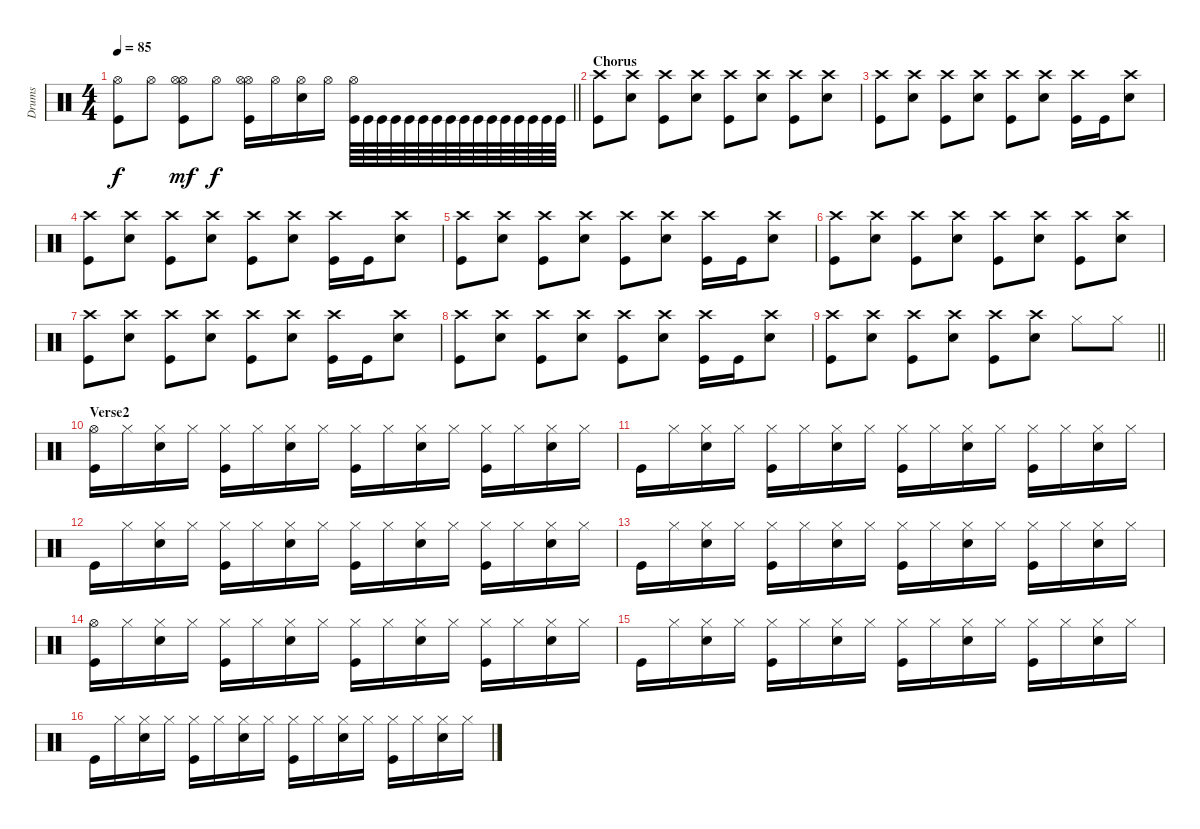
\track ("Drums" "Drums") {instrument percussion}
\staff {score}
\articulation defaults
\ts (4 4)
\tempo 85
\clef neutral
\barLineRight lightlight
\ks c
("Hi-Hat (open)" "Kick (hit)").8{dy f} "Hi-Hat (open)".8 ("Hi-Hat (open)" "Kick (hit)" "Hi-Hat (open)").8{dy mf} "Hi-Hat (open)".8{dy f} ("Hi-Hat (open)" "Kick (hit)" "Hi-Hat (open)").16 "Hi-Hat (open)".16 ("Hi-Hat (open)" "Electric Snare (hit)").16 "Hi-Hat (open)".16 ("Hi-Hat (open)" "Kick (hit)").64 "Kick (hit)".64 "Kick (hit)".64 "Kick (hit)".64 "Kick (hit)".64 "Kick (hit)".64 "Kick (hit)".64 "Kick (hit)".64 "Kick (hit)".64 "Kick (hit)".64 "Kick (hit)".64 "Kick (hit)".64 "Kick (hit)".64 "Kick (hit)".64 "Kick (hit)".64 "Kick (hit)".64 |
\section ("" "Chorus")
("Kick (hit)" "Crash high (hit)").8 ("Electric Snare (hit)" "Crash high (hit)").8 ("Kick (hit)" "Crash high (hit)").8 ("Electric Snare (hit)" "Crash high (hit)").8 ("Kick (hit)" "Crash high (hit)").8 ("Electric Snare (hit)" "Crash high (hit)").8 ("Kick (hit)" "Crash high (hit)").8 ("Electric Snare (hit)" "Crash high (hit)").8 |
("Kick (hit)" "Crash high (hit)").8 ("Electric Snare (hit)" "Crash high (hit)").8 ("Kick (hit)" "Crash high (hit)").8 ("Electric Snare (hit)" "Crash high (hit)").8 ("Kick (hit)" "Crash high (hit)").8 ("Electric Snare (hit)" "Crash high (hit)").8 ("Kick (hit)" "Crash high (hit)").16 "Kick (hit)".16 ("Electric Snare (hit)" "Crash high (hit)").8 |
("Kick (hit)" "Crash high (hit)").8 ("Electric Snare (hit)" "Crash high (hit)").8 ("Kick (hit)" "Crash high (hit)").8 ("Electric Snare (hit)" "Crash high (hit)").8 ("Kick (hit)" "Crash high (hit)").8 ("Electric Snare (hit)" "Crash high (hit)").8 ("Kick (hit)" "Crash high (hit)").16 "Kick (hit)".16 ("Electric Snare (hit)" "Crash high (hit)").8 |
("Kick (hit)" "Crash high (hit)").8 ("Electric Snare (hit)" "Crash high (hit)").8 ("Kick (hit)" "Crash high (hit)").8 ("Electric Snare (hit)" "Crash high (hit)").8 ("Kick (hit)" "Crash high (hit)").8 ("Electric Snare (hit)" "Crash high (hit)").8 ("Kick (hit)" "Crash high (hit)").16 "Kick (hit)".16 ("Electric Snare (hit)" "Crash high (hit)").8 |
("Kick (hit)" "Crash high (hit)").8 ("Electric Snare (hit)" "Crash high (hit)").8 ("Kick (hit)" "Crash high (hit)").8 ("Electric Snare (hit)" "Crash high (hit)").8 ("Kick (hit)" "Crash high (hit)").8 ("Electric Snare (hit)" "Crash high (hit)").8 ("Kick (hit)" "Crash high (hit)").8 ("Electric Snare (hit)" "Crash high (hit)").8 |
("Kick (hit)" "Crash high (hit)").8 ("Electric Snare (hit)" "Crash high (hit)").8 ("Kick (hit)" "Crash high (hit)").8 ("Electric Snare (hit)" "Crash high (hit)").8 ("Kick (hit)" "Crash high (hit)").8 ("Electric Snare (hit)" "Crash high (hit)").8 ("Kick (hit)" "Crash high (hit)").16 "Kick (hit)".16 ("Electric Snare (hit)" "Crash high (hit)").8 |
("Kick (hit)" "Crash high (hit)").8 ("Electric Snare (hit)" "Crash high (hit)").8 ("Kick (hit)" "Crash high (hit)").8 ("Electric Snare (hit)" "Crash high (hit)").8 ("Kick (hit)" "Crash high (hit)").8 ("Electric Snare (hit)" "Crash high (hit)").8 ("Kick (hit)" "Crash high (hit)").16 "Kick (hit)".16 ("Electric Snare (hit)" "Crash high (hit)").8 |
\barLineRight lightlight
("Kick (hit)" "Crash high (hit)").8 ("Electric Snare (hit)" "Crash high (hit)").8 ("Kick (hit)" "Crash high (hit)").8 ("Electric Snare (hit)" "Crash high (hit)").8 ("Kick (hit)" "Crash high (hit)").8 ("Electric Snare (hit)" "Crash high (hit)").8 "Hi-Hat (closed)".8 "Hi-Hat (closed)".8 |
\section ("" "Verse2")
("Kick (hit)" "Hi-Hat (open)").16 "Hi-Hat (closed)".16 ("Hi-Hat (closed)" "Electric Snare (hit)").16 "Hi-Hat (closed)".16 ("Hi-Hat (closed)" "Kick (hit)").16 "Hi-Hat (closed)".16 ("Hi-Hat (closed)" "Electric Snare (hit)").16 "Hi-Hat (closed)".16 ("Hi-Hat (closed)" "Kick (hit)").16 "Hi-Hat (closed)".16 ("Hi-Hat (closed)" "Electric Snare (hit)").16 "Hi-Hat (closed)".16 ("Hi-Hat (closed)" "Kick (hit)").16 "Hi-Hat (closed)".16 ("Hi-Hat (closed)" "Electric Snare (hit)").16 "Hi-Hat (closed)".16 |
"Kick (hit)".16 "Hi-Hat (closed)".16 ("Hi-Hat (closed)" "Electric Snare (hit)").16 "Hi-Hat (closed)".16 ("Hi-Hat (closed)" "Kick (hit)").16 "Hi-Hat (closed)".16 ("Hi-Hat (closed)" "Electric Snare (hit)").16 "Hi-Hat (closed)".16 ("Hi-Hat (closed)" "Kick (hit)").16 "Hi-Hat (closed)".16 ("Hi-Hat (closed)" "Electric Snare (hit)").16 "Hi-Hat (closed)".16 ("Hi-Hat (closed)" "Kick (hit)").16 "Hi-Hat (closed)".16 ("Hi-Hat (closed)" "Electric Snare (hit)").16 "Hi-Hat (closed)".16 |
"Kick (hit)".16 "Hi-Hat (closed)".16 ("Hi-Hat (closed)" "Electric Snare (hit)").16 "Hi-Hat (closed)".16 ("Hi-Hat (closed)" "Kick (hit)").16 "Hi-Hat (closed)".16 ("Hi-Hat (closed)" "Electric Snare (hit)").16 "Hi-Hat (closed)".16 ("Hi-Hat (closed)" "Kick (hit)").16 "Hi-Hat (closed)".16 ("Hi-Hat (closed)" "Electric Snare (hit)").16 "Hi-Hat (closed)".16 ("Hi-Hat (closed)" "Kick (hit)").16 "Hi-Hat (closed)".16 ("Hi-Hat (closed)" "Electric Snare (hit)").16 "Hi-Hat (closed)".16 |
"Kick (hit)".16 "Hi-Hat (closed)".16 ("Hi-Hat (closed)" "Electric Snare (hit)").16 "Hi-Hat (closed)".16 ("Hi-Hat (closed)" "Kick (hit)").16 "Hi-Hat (closed)".16 ("Hi-Hat (closed)" "Electric Snare (hit)").16 "Hi-Hat (closed)".16 ("Hi-Hat (closed)" "Kick (hit)").16 "Hi-Hat (closed)".16 ("Hi-Hat (closed)" "Electric Snare (hit)").16 "Hi-Hat (closed)".16 ("Hi-Hat (closed)" "Kick (hit)").16 "Hi-Hat (closed)".16 ("Hi-Hat (closed)" "Electric Snare (hit)").16 "Hi-Hat (closed)".16 |
("Kick (hit)" "Hi-Hat (open)").16 "Hi-Hat (closed)".16 ("Hi-Hat (closed)" "Electric Snare (hit)").16 "Hi-Hat (closed)".16 ("Hi-Hat (closed)" "Kick (hit)").16 "Hi-Hat (closed)".16 ("Hi-Hat (closed)" "Electric Snare (hit)").16 "Hi-Hat (closed)".16 ("Hi-Hat (closed)" "Kick (hit)").16 "Hi-Hat (closed)".16 ("Hi-Hat (closed)" "Electric Snare (hit)").16 "Hi-Hat (closed)".16 ("Hi-Hat (closed)" "Kick (hit)").16 "Hi-Hat (closed)".16 ("Hi-Hat (closed)" "Electric Snare (hit)").16 "Hi-Hat (closed)".16 |
"Kick (hit)".16 "Hi-Hat (closed)".16 ("Hi-Hat (closed)" "Electric Snare (hit)").16 "Hi-Hat (closed)".16 ("Hi-Hat (closed)" "Kick (hit)").16 "Hi-Hat (closed)".16 ("Hi-Hat (closed)" "Electric Snare (hit)").16 "Hi-Hat (closed)".16 ("Hi-Hat (closed)" "Kick (hit)").16 "Hi-Hat (closed)".16 ("Hi-Hat (closed)" "Electric Snare (hit)").16 "Hi-Hat (closed)".16 ("Hi-Hat (closed)" "Kick (hit)").16 "Hi-Hat (closed)".16 ("Hi-Hat (closed)" "Electric Snare (hit)").16 "Hi-Hat (closed)".16 |
"Kick (hit)".16 "Hi-Hat (closed)".16 ("Hi-Hat (closed)" "Electric Snare (hit)").16 "Hi-Hat (closed)".16 ("Hi-Hat (closed)" "Kick (hit)").16 "Hi-Hat (closed)".16 ("Hi-Hat (closed)" "Electric Snare (hit)").16 "Hi-Hat (closed)".16 ("Hi-Hat (closed)" "Kick (hit)").16 "Hi-Hat (closed)".16 ("Hi-Hat (closed)" "Electric Snare (hit)").16 "Hi-Hat (closed)".16 ("Hi-Hat (closed)" "Kick (hit)").16 "Hi-Hat (closed)".16 ("Hi-Hat (closed)" "Electric Snare (hit)").16 "Hi-Hat (closed)".16
